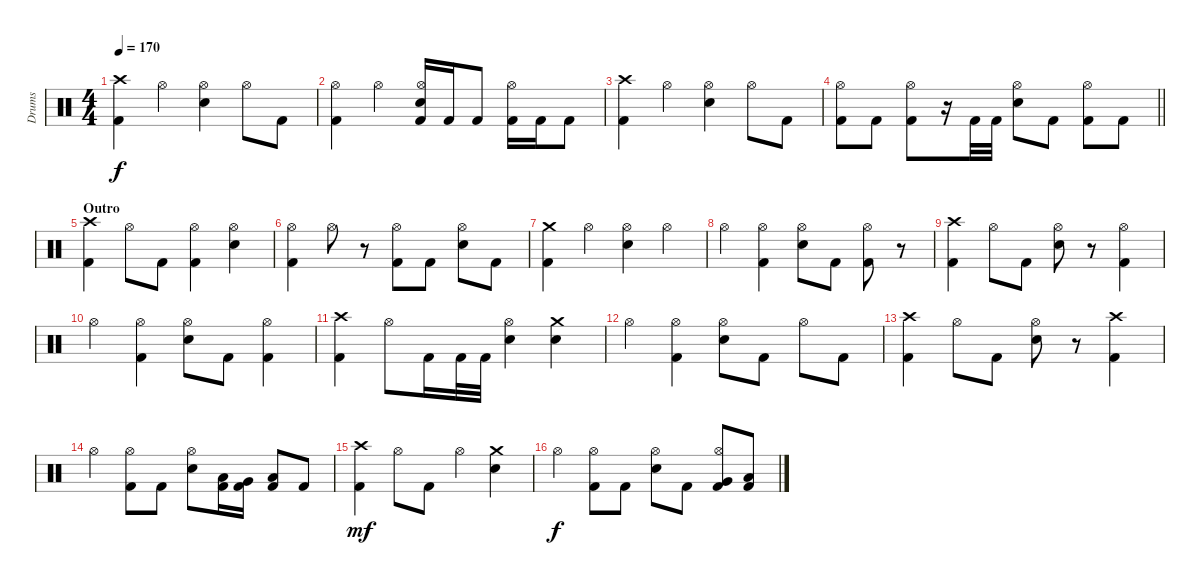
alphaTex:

\track ("Drums" "Drums") {instrument percussion}
\staff {score}
\articulation defaults
\ts (4 4)
\tempo 170
\clef neutral
\ks c
("Crash high (hit)" "Kick (hit) 2").4{dy f} "Hi-Hat (open)".4 ("Hi-Hat (open)" "Snare (hit) 2").4 "Hi-Hat (open)".8 "Kick (hit) 2".8 |
("Hi-Hat (open)" "Kick (hit) 2").4 "Hi-Hat (open)".4 ("Hi-Hat (open)" "Snare (hit) 2" "Kick (hit) 2").16 "Kick (hit) 2".16 "Kick (hit) 2".8 ("Hi-Hat (open)" "Kick (hit) 2").16 "Kick (hit) 2".16 "Kick (hit) 2".8 |
("Crash high (hit)" "Kick (hit) 2").4 "Hi-Hat (open)".4 ("Hi-Hat (open)" "Snare (hit) 2").4 "Hi-Hat (open)".8 "Kick (hit) 2".8 |
\barLineRight lightlight
("Hi-Hat (open)" "Kick (hit) 2").8 "Kick (hit) 2".8 ("Hi-Hat (open)" "Kick (hit) 2").8 r.16 "Kick (hit) 2".32 "Kick (hit) 2".32 ("Hi-Hat (open)" "Snare (hit) 2").8 "Kick (hit) 2".8 ("Hi-Hat (open)" "Kick (hit) 2").8 "Kick (hit) 2".8 |
\section ("" "Outro")
("Crash high (hit)" "Kick (hit) 2").4 "Hi-Hat (open)".8 "Kick (hit) 2".8 ("Hi-Hat (open)" "Kick (hit) 2").4 ("Hi-Hat (open)" "Snare (hit) 2").4 |
("Hi-Hat (open)" "Kick (hit) 2").4 "Hi-Hat (open)".8 r.8 ("Hi-Hat (open)" "Kick (hit) 2").8 "Kick (hit) 2".8 ("Hi-Hat (open)" "Snare (hit) 2").8 "Kick (hit) 2".8 |
("Crash medium (hit)" "Kick (hit) 2").4 "Hi-Hat (open)".4 ("Hi-Hat (open)" "Snare (hit) 2").4 "Hi-Hat (open)".4 |
"Hi-Hat (open)".4 ("Hi-Hat (open)" "Kick (hit) 2").4 ("Hi-Hat (open)" "Snare (hit) 2").8 "Kick (hit) 2".8 ("Hi-Hat (open)" "Kick (hit) 2").8 r.8 |
("Crash high (hit)" "Kick (hit) 2").4 "Hi-Hat (open)".8 "Kick (hit) 2".8 ("Hi-Hat (open)" "Snare (hit) 2").8 r.8 ("Hi-Hat (open)" "Kick (hit) 2").4 |
"Hi-Hat (open)".4 ("Hi-Hat (open)" "Kick (hit) 2").4 ("Hi-Hat (open)" "Snare (hit) 2").8 "Kick (hit) 2".8 ("Hi-Hat (open)" "Kick (hit) 2").4 |
("Crash high (hit)" "Kick (hit) 2").4 "Hi-Hat (open)".8 "Kick (hit) 2".16 "Kick (hit) 2".32 "Kick (hit) 2".32 ("Hi-Hat (open)" "Snare (hit) 2").4 ("Crash medium (hit)" "Snare (hit) 2").4 |
"Hi-Hat (open)".4 ("Hi-Hat (open)" "Kick (hit) 2").4 ("Hi-Hat (open)" "Snare (hit) 2").8 "Kick (hit) 2".8 "Hi-Hat (open)".8 "Kick (hit) 2".8 |
("Crash high (hit)" "Kick (hit) 2").4 "Hi-Hat (open)".8 "Kick (hit) 2".8 ("Hi-Hat (open)" "Snare (hit) 2").8 r.8 ("Crash high (hit)" "Kick (hit) 2").4 |
"Hi-Hat (open)".4 ("Hi-Hat (open)" "Kick (hit) 2").8 "Kick (hit) 2".8 ("Hi-Hat (open)" "Snare (hit) 2").8 ("Low Tom (hit)" "Kick (hit) 2").16 ("Very Low Tom (hit)" "Kick (hit) 2").16 ("Low Floor Tom (hit)" "Kick (hit) 2").8 "Kick (hit) 2".8 |
("Crash high (hit)" "Kick (hit) 2").4{dy mf} "Hi-Hat (open)".8 "Kick (hit) 2".8 "Hi-Hat (open)".4 ("Crash medium (hit)" "Snare (hit) 2").4 |
"Hi-Hat (open)".4{dy f} ("Hi-Hat (open)" "Kick (hit) 2").8 "Kick (hit) 2".8 ("Hi-Hat (open)" "Snare (hit) 2").8 "Kick (hit) 2".8 ("Very Low Tom (hit)" "Hi-Hat (open)" "Kick (hit) 2").8 ("Low Floor Tom (hit)" "Kick (hit) 2").8
